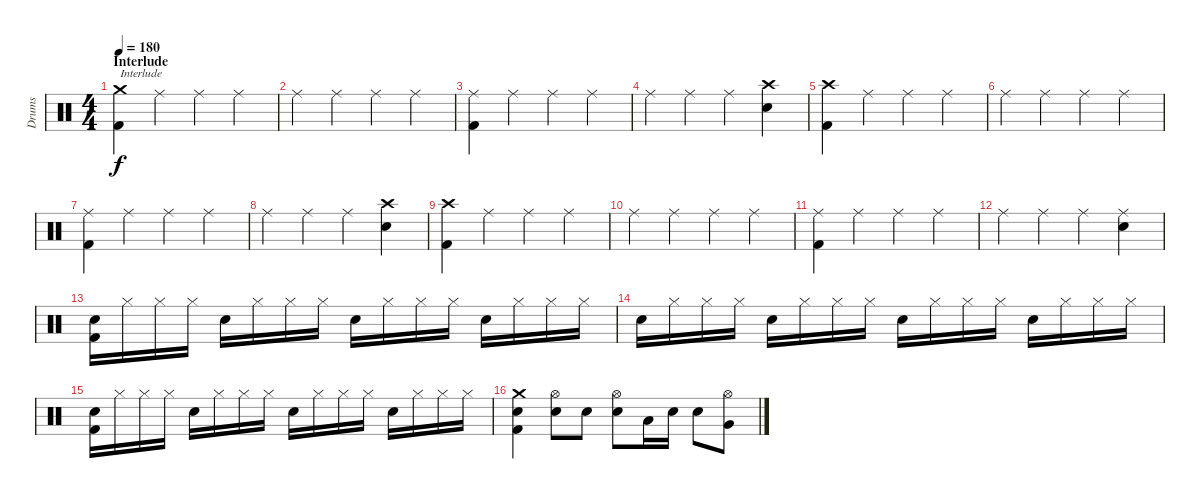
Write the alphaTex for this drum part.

\track ("Drums" "Drums") {instrument percussion}
\staff {score}
\articulation defaults
\ts (4 4)
\section ("" "Interlude")
\tempo 180
\clef neutral
\ks c
("Crash medium (hit)" "Kick (hit) 2").4{txt "Interlude" dy f} "Ride (middle)".4 "Ride (middle)".4 "Ride (middle)".4 |
"Ride (middle)".4 "Ride (middle)".4 "Ride (middle)".4 "Ride (middle)".4 |
("Ride (middle)" "Kick (hit) 2").4 "Ride (middle)".4 "Ride (middle)".4 "Ride (middle)".4 |
"Ride (middle)".4 "Ride (middle)".4 "Ride (middle)".4 ("Crash high (hit)" "Electric Snare (hit)").4 |
("Crash high (hit)" "Kick (hit) 2").4 "Ride (middle)".4 "Ride (middle)".4 "Ride (middle)".4 |
"Ride (middle)".4 "Ride (middle)".4 "Ride (middle)".4 "Ride (middle)".4 |
("Ride (middle)" "Kick (hit) 2").4 "Ride (middle)".4 "Ride (middle)".4 "Ride (middle)".4 |
"Ride (middle)".4 "Ride (middle)".4 "Ride (middle)".4 ("Crash high (hit)" "Electric Snare (hit)").4 |
("Crash high (hit)" "Kick (hit) 2").4 "Ride (middle)".4 "Ride (middle)".4 "Ride (middle)".4 |
"Ride (middle)".4 "Ride (middle)".4 "Ride (middle)".4 "Ride (middle)".4 |
("Ride (middle)" "Kick (hit) 2").4 "Ride (middle)".4 "Ride (middle)".4 "Ride (middle)".4 |
"Ride (middle)".4 "Ride (middle)".4 "Ride (middle)".4 ("Ride (middle)" "Electric Snare (hit)").4 |
("Electric Snare (hit)" "Kick (hit) 2").16 "Hi-Hat (closed)".16 "Hi-Hat (closed)".16 "Hi-Hat (closed)".16 "Electric Snare (hit)".16 "Hi-Hat (closed)".16 "Hi-Hat (closed)".16 "Hi-Hat (closed)".16 "Electric Snare (hit)".16 "Hi-Hat (closed)".16 "Hi-Hat (closed)".16 "Hi-Hat (closed)".16 "Electric Snare (hit)".16 "Hi-Hat (closed)".16 "Hi-Hat (closed)".16 "Hi-Hat (closed)".16 |
"Electric Snare (hit)".16 "Hi-Hat (closed)".16 "Hi-Hat (closed)".16 "Hi-Hat (closed)".16 "Electric Snare (hit)".16 "Hi-Hat (closed)".16 "Hi-Hat (closed)".16 "Hi-Hat (closed)".16 "Electric Snare (hit)".16 "Hi-Hat (closed)".16 "Hi-Hat (closed)".16 "Hi-Hat (closed)".16 "Electric Snare (hit)".16 "Hi-Hat (closed)".16 "Hi-Hat (closed)".16 "Hi-Hat (closed)".16 |
("Electric Snare (hit)" "Kick (hit) 2").16 "Hi-Hat (closed)".16 "Hi-Hat (closed)".16 "Hi-Hat (closed)".16 "Electric Snare (hit)".16 "Hi-Hat (closed)".16 "Hi-Hat (closed)".16 "Hi-Hat (closed)".16 "Electric Snare (hit)".16 "Hi-Hat (closed)".16 "Hi-Hat (closed)".16 "Hi-Hat (closed)".16 "Electric Snare (hit)".16 "Hi-Hat (closed)".16 "Hi-Hat (closed)".16 "Hi-Hat (closed)".16 |
("Crash medium (hit)" "Electric Snare (hit)" "Kick (hit) 2").4 ("Hi-Hat (open)" "Electric Snare (hit)").8 "Electric Snare (hit)".8 ("Hi-Hat (open)" "Electric Snare (hit)").8 "Low Tom (hit)".16 "Electric Snare (hit)".16 "Electric Snare (hit)".8 ("Hi-Hat (open)" "Very Low Tom (hit)").8
